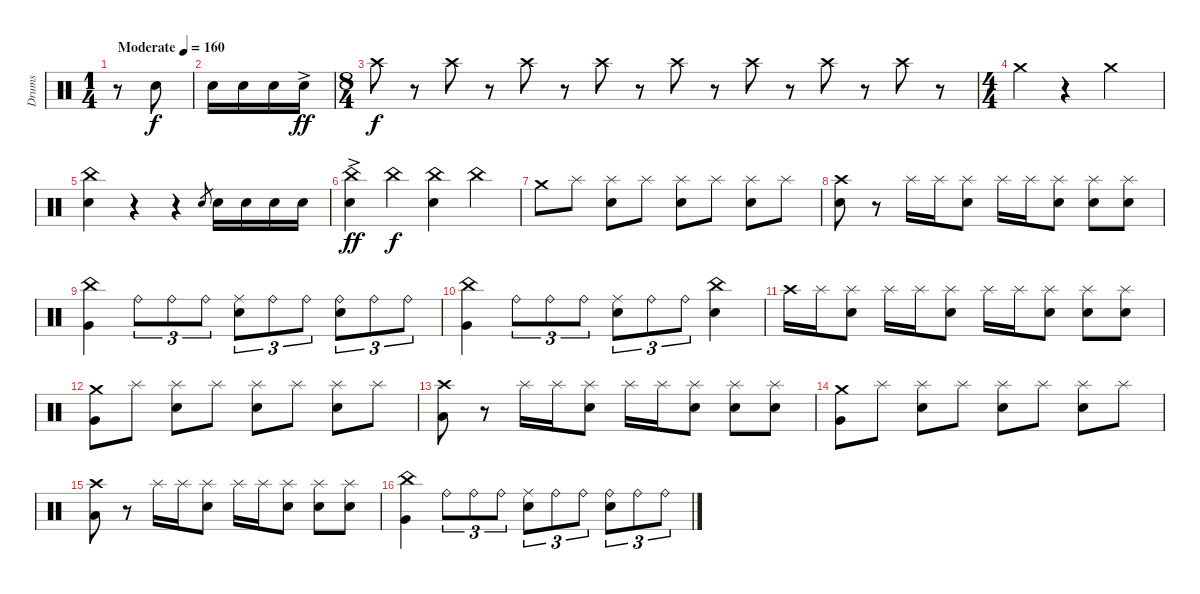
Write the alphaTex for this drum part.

\track ("Drums" "Drums") {instrument percussion}
\staff {score}
\articulation defaults
\ts (1 4)
\tempo (160 "Moderate")
\clef neutral
\ks c
r.8{dy f} "Electric Snare (hit)".8 |
"Electric Snare (hit)".16 "Electric Snare (hit)".16 "Electric Snare (hit)".16 "Electric Snare (hit)"{ac}.16{dy ff} |
\ts (8 4)
"Crash high (hit)".8{dy f} r.8 "Crash high (hit)".8 r.8 "Crash high (hit)".8 r.8 "Crash high (hit)".8 r.8 "Crash high (hit)".8 r.8 "Crash high (hit)".8 r.8 "Crash high (hit)".8 r.8 "Crash high (hit)".8 r.8 |
\ts (4 4)
"Crash medium (hit)".4 r.4 "Crash medium (hit)".2 |
("China (hit)" "Electric Snare (hit)").4 r.4 r.4 "Electric Snare (hit)".8{gr} "Electric Snare (hit)".16 "Electric Snare (hit)".16 "Electric Snare (hit)".16 "Electric Snare (hit)".16 |
("China (hit)" "Electric Snare (hit)"{ac}).4{dy ff} "China (hit)".4{dy f} ("China (hit)" "Electric Snare (hit)").4 "China (hit)".4 |
"Crash medium (hit)".8 "Splash (hit)".8 ("Splash (hit)" "Electric Snare (hit)").8 "Splash (hit)".8 ("Splash (hit)" "Electric Snare (hit)").8 "Splash (hit)".8 ("Splash (hit)" "Electric Snare (hit)").8 "Splash (hit)".8 |
("Crash high (hit)" "Electric Snare (hit)").8 r.8 "Splash (hit)".16 "Splash (hit)".16 ("Splash (hit)" "Electric Snare (hit)").8 "Splash (hit)".16 "Splash (hit)".16 ("Splash (hit)" "Electric Snare (hit)").8 ("Splash (hit)" "Electric Snare (hit)").8 ("Splash (hit)" "Electric Snare (hit)").8 |
("China (hit)" "Very Low Tom (hit)").4 "Ride (bell)".8{tu (3 2)} "Ride (bell)".8{tu (3 2)} "Ride (bell)".8{tu (3 2)} ("Ride (middle)" "Electric Snare (hit)").8{tu (3 2)} "Ride (bell)".8{tu (3 2)} "Ride (bell)".8{tu (3 2)} ("Ride (bell)" "Electric Snare (hit)").8{tu (3 2)} "Ride (bell)".8{tu (3 2)} "Ride (bell)".8{tu (3 2)} |
("China (hit)" "Very Low Tom (hit)").4 "Ride (bell)".8{tu (3 2)} "Ride (bell)".8{tu (3 2)} "Ride (bell)".8{tu (3 2)} ("Ride (middle)" "Electric Snare (hit)").8{tu (3 2)} "Ride (bell)".8{tu (3 2)} "Ride (bell)".8{tu (3 2)} ("China (hit)" "Electric Snare (hit)").4 |
"Crash high (hit)".16 "Splash (hit)".16 ("Splash (hit)" "Electric Snare (hit)").8 "Splash (hit)".16 "Splash (hit)".16 ("Splash (hit)" "Electric Snare (hit)").8 "Splash (hit)".16 "Splash (hit)".16 ("Splash (hit)" "Electric Snare (hit)").8 ("Splash (hit)" "Electric Snare (hit)").8 ("Splash (hit)" "Electric Snare (hit)").8 |
("Crash medium (hit)" "Very Low Tom (hit)").8 "Splash (hit)".8 ("Splash (hit)" "Electric Snare (hit)").8 "Splash (hit)".8 ("Splash (hit)" "Electric Snare (hit)").8 "Splash (hit)".8 ("Splash (hit)" "Electric Snare (hit)").8 "Splash (hit)".8 |
("Crash high (hit)" "Low Floor Tom (hit)").8 r.8 "Splash (hit)".16 "Splash (hit)".16 ("Splash (hit)" "Electric Snare (hit)").8 "Splash (hit)".16 "Splash (hit)".16 ("Splash (hit)" "Electric Snare (hit)").8 ("Splash (hit)" "Electric Snare (hit)").8 ("Splash (hit)" "Electric Snare (hit)").8 |
("Crash medium (hit)" "Very Low Tom (hit)").8 "Splash (hit)".8 ("Splash (hit)" "Electric Snare (hit)").8 "Splash (hit)".8 ("Splash (hit)" "Electric Snare (hit)").8 "Splash (hit)".8 ("Splash (hit)" "Electric Snare (hit)").8 "Splash (hit)".8 |
("Crash high (hit)" "Low Floor Tom (hit)").8 r.8 "Splash (hit)".16 "Splash (hit)".16 ("Splash (hit)" "Electric Snare (hit)").8 "Splash (hit)".16 "Splash (hit)".16 ("Splash (hit)" "Electric Snare (hit)").8 ("Splash (hit)" "Electric Snare (hit)").8 ("Splash (hit)" "Electric Snare (hit)").8 |
("China (hit)" "Very Low Tom (hit)").4 "Ride (bell)".8{tu (3 2)} "Ride (bell)".8{tu (3 2)} "Ride (bell)".8{tu (3 2)} ("Ride (middle)" "Electric Snare (hit)").8{tu (3 2)} "Ride (bell)".8{tu (3 2)} "Ride (bell)".8{tu (3 2)} ("Ride (bell)" "Electric Snare (hit)").8{tu (3 2)} "Ride (bell)".8{tu (3 2)} "Ride (bell)".8{tu (3 2)}
